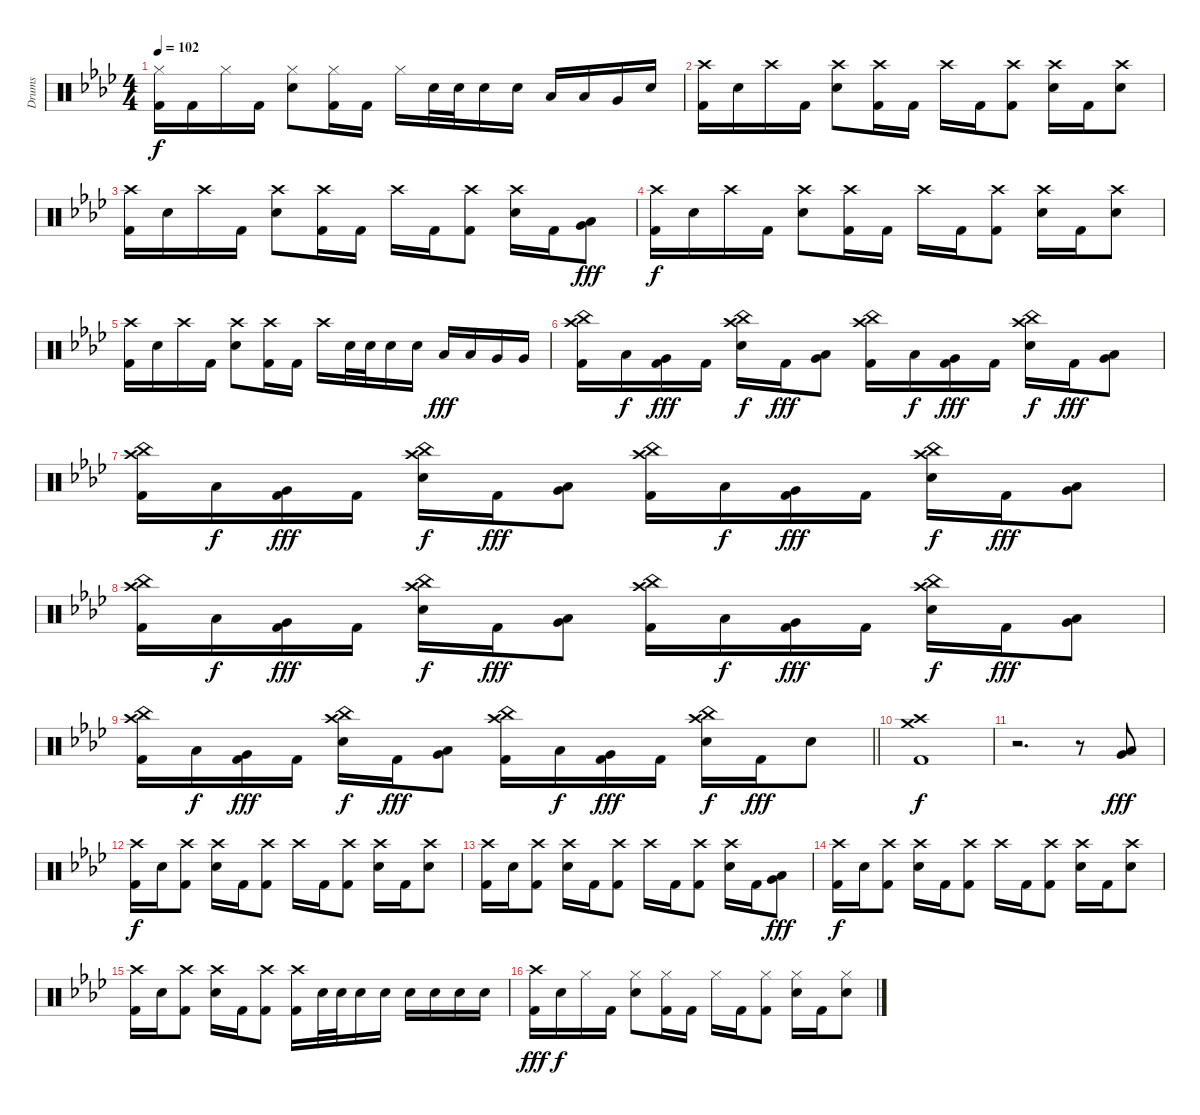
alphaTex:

\track ("Drums" "Drums") {instrument percussion}
\staff {score}
\articulation defaults
\ts (4 4)
\tempo 102
\clef neutral
\ks fminor
("Hi-Hat (closed)" "Kick (hit) 2").16{dy f} "Kick (hit) 2".16 "Hi-Hat (closed)".16 "Kick (hit) 2".16 ("Hi-Hat (closed)" "Snare (hit) 2").8 ("Hi-Hat (closed)" "Kick (hit) 2").16 "Kick (hit) 2".16 "Hi-Hat (closed)".16 "Snare (hit) 2".32 "Snare (hit) 2".32 "Snare (hit) 2".16 "Snare (hit) 2".16 "Low Tom (hit)".16 "Low Tom (hit)".16 "Very Low Tom (hit)".16 "Snare (hit) 2".16 |
("Crash high (hit)" "Kick (hit) 2").16 "Snare (hit) 2".16 "Crash high (hit)".16 "Kick (hit) 2".16 ("Crash high (hit)" "Snare (hit) 2").8 ("Crash high (hit)" "Kick (hit) 2").16 "Kick (hit) 2".16 "Crash high (hit)".16 "Kick (hit) 2".16 ("Crash high (hit)" "Kick (hit) 2").8 ("Crash high (hit)" "Snare (hit) 2").16 "Kick (hit) 2".16 ("Crash high (hit)" "Snare (hit) 2").8 |
("Crash high (hit)" "Kick (hit) 2").16 "Snare (hit) 2".16 "Crash high (hit)".16 "Kick (hit) 2".16 ("Crash high (hit)" "Snare (hit) 2").8 ("Crash high (hit)" "Kick (hit) 2").16 "Kick (hit) 2".16 "Crash high (hit)".16 "Kick (hit) 2".16 ("Crash high (hit)" "Kick (hit) 2").8 ("Crash high (hit)" "Snare (hit) 2").16 "Kick (hit) 2".16 ("Low Tom (hit)" "Very Low Tom (hit)").8{dy fff} |
("Crash high (hit)" "Kick (hit) 2").16{dy f} "Snare (hit) 2".16 "Crash high (hit)".16 "Kick (hit) 2".16 ("Crash high (hit)" "Snare (hit) 2").8 ("Crash high (hit)" "Kick (hit) 2").16 "Kick (hit) 2".16 "Crash high (hit)".16 "Kick (hit) 2".16 ("Crash high (hit)" "Kick (hit) 2").8 ("Crash high (hit)" "Snare (hit) 2").16 "Kick (hit) 2".16 ("Crash high (hit)" "Snare (hit) 2").8 |
("Crash high (hit)" "Kick (hit) 2").16 "Snare (hit) 2".16 "Crash high (hit)".16 "Kick (hit) 2".16 ("Crash high (hit)" "Snare (hit) 2").8 ("Crash high (hit)" "Kick (hit) 2").16 "Kick (hit) 2".16 "Crash high (hit)".16 "Snare (hit) 2".32 "Snare (hit) 2".32 "Snare (hit) 2".16 "Snare (hit) 2".16 "Low Tom (hit)".16{dy fff} "Low Tom (hit)".16 "Very Low Tom (hit)".16 "Very Low Tom (hit)".16 |
("Crash high (hit)" "China (hit)" "Kick (hit) 2").16 "Low Tom (hit)".16{dy f} ("Very Low Tom (hit)" "Kick (hit) 2").16{dy fff} "Kick (hit) 2".16 ("Crash high (hit)" "China (hit)" "Snare (hit) 2").16{dy f} "Kick (hit) 2".16{dy fff} ("Low Tom (hit)" "Very Low Tom (hit)").8 ("Crash high (hit)" "China (hit)" "Kick (hit) 2").16 "Low Tom (hit)".16{dy f} ("Very Low Tom (hit)" "Kick (hit) 2").16{dy fff} "Kick (hit) 2".16 ("Crash high (hit)" "China (hit)" "Snare (hit) 2").16{dy f} "Kick (hit) 2".16{dy fff} ("Low Tom (hit)" "Very Low Tom (hit)").8 |
("Crash high (hit)" "China (hit)" "Kick (hit) 2").16 "Low Tom (hit)".16{dy f} ("Very Low Tom (hit)" "Kick (hit) 2").16{dy fff} "Kick (hit) 2".16 ("Crash high (hit)" "China (hit)" "Snare (hit) 2").16{dy f} "Kick (hit) 2".16{dy fff} ("Low Tom (hit)" "Very Low Tom (hit)").8 ("Crash high (hit)" "China (hit)" "Kick (hit) 2").16 "Low Tom (hit)".16{dy f} ("Very Low Tom (hit)" "Kick (hit) 2").16{dy fff} "Kick (hit) 2".16 ("Crash high (hit)" "China (hit)" "Snare (hit) 2").16{dy f} "Kick (hit) 2".16{dy fff} ("Low Tom (hit)" "Very Low Tom (hit)").8 |
("Crash high (hit)" "China (hit)" "Kick (hit) 2").16 "Low Tom (hit)".16{dy f} ("Very Low Tom (hit)" "Kick (hit) 2").16{dy fff} "Kick (hit) 2".16 ("Crash high (hit)" "China (hit)" "Snare (hit) 2").16{dy f} "Kick (hit) 2".16{dy fff} ("Low Tom (hit)" "Very Low Tom (hit)").8 ("Crash high (hit)" "China (hit)" "Kick (hit) 2").16 "Low Tom (hit)".16{dy f} ("Very Low Tom (hit)" "Kick (hit) 2").16{dy fff} "Kick (hit) 2".16 ("Crash high (hit)" "China (hit)" "Snare (hit) 2").16{dy f} "Kick (hit) 2".16{dy fff} ("Low Tom (hit)" "Very Low Tom (hit)").8 |
\barLineRight lightlight
("Crash high (hit)" "China (hit)" "Kick (hit) 2").16 "Low Tom (hit)".16{dy f} ("Very Low Tom (hit)" "Kick (hit) 2").16{dy fff} "Kick (hit) 2".16 ("Crash high (hit)" "China (hit)" "Snare (hit) 2").16{dy f} "Kick (hit) 2".16{dy fff} ("Low Tom (hit)" "Very Low Tom (hit)").8 ("Crash high (hit)" "China (hit)" "Kick (hit) 2").16 "Low Tom (hit)".16{dy f} ("Very Low Tom (hit)" "Kick (hit) 2").16{dy fff} "Kick (hit) 2".16 ("Crash high (hit)" "China (hit)" "Snare (hit) 2").16{dy f} "Kick (hit) 2".16{dy fff} "Snare (hit) 2".8 |
("Crash high (hit)" "Crash medium (hit)" "Kick (hit) 2").1{dy f} |
r.2{d} r.8 ("Low Tom (hit)" "Very Low Tom (hit)").8{dy fff} |
("Crash high (hit)" "Kick (hit) 2").16{dy f} "Snare (hit) 2".16 ("Crash high (hit)" "Kick (hit) 2").8 ("Crash high (hit)" "Snare (hit) 2").16 "Kick (hit) 2".16 ("Crash high (hit)" "Kick (hit) 2").8 "Crash high (hit)".16 "Kick (hit) 2".16 ("Crash high (hit)" "Kick (hit) 2").8 ("Crash high (hit)" "Snare (hit) 2").16 "Kick (hit) 2".16 ("Crash high (hit)" "Snare (hit) 2").8 |
("Crash high (hit)" "Kick (hit) 2").16 "Snare (hit) 2".16 ("Crash high (hit)" "Kick (hit) 2").8 ("Crash high (hit)" "Snare (hit) 2").16 "Kick (hit) 2".16 ("Crash high (hit)" "Kick (hit) 2").8 "Crash high (hit)".16 "Kick (hit) 2".16 ("Crash high (hit)" "Kick (hit) 2").8 ("Crash high (hit)" "Snare (hit) 2").16 "Kick (hit) 2".16 ("Low Tom (hit)" "Very Low Tom (hit)").8{dy fff} |
("Crash high (hit)" "Kick (hit) 2").16{dy f} "Snare (hit) 2".16 ("Crash high (hit)" "Kick (hit) 2").8 ("Crash high (hit)" "Snare (hit) 2").16 "Kick (hit) 2".16 ("Crash high (hit)" "Kick (hit) 2").8 "Crash high (hit)".16 "Kick (hit) 2".16 ("Crash high (hit)" "Kick (hit) 2").8 ("Crash high (hit)" "Snare (hit) 2").16 "Kick (hit) 2".16 ("Crash high (hit)" "Snare (hit) 2").8 |
("Crash high (hit)" "Kick (hit) 2").16 "Snare (hit) 2".16 ("Crash high (hit)" "Kick (hit) 2").8 ("Crash high (hit)" "Snare (hit) 2").16 "Kick (hit) 2".16 ("Crash high (hit)" "Kick (hit) 2").8 ("Crash high (hit)" "Kick (hit) 2").16 "Snare (hit) 2".32 "Snare (hit) 2".32 "Snare (hit) 2".16 "Snare (hit) 2".16 "Snare (hit) 2".16 "Snare (hit) 2".16 "Snare (hit) 2".16 "Snare (hit) 2".16 |
("Crash high (hit)" "Kick (hit) 2").16{dy fff} "Snare (hit) 2".16{dy f} "Hi-Hat (closed)".16 "Kick (hit) 2".16 ("Hi-Hat (closed)" "Snare (hit) 2").8 ("Hi-Hat (closed)" "Kick (hit) 2").16 "Kick (hit) 2".16 "Hi-Hat (closed)".16 "Kick (hit) 2".16 ("Hi-Hat (closed)" "Kick (hit) 2").8 ("Hi-Hat (closed)" "Snare (hit) 2").16 "Kick (hit) 2".16 ("Hi-Hat (closed)" "Snare (hit) 2").8
